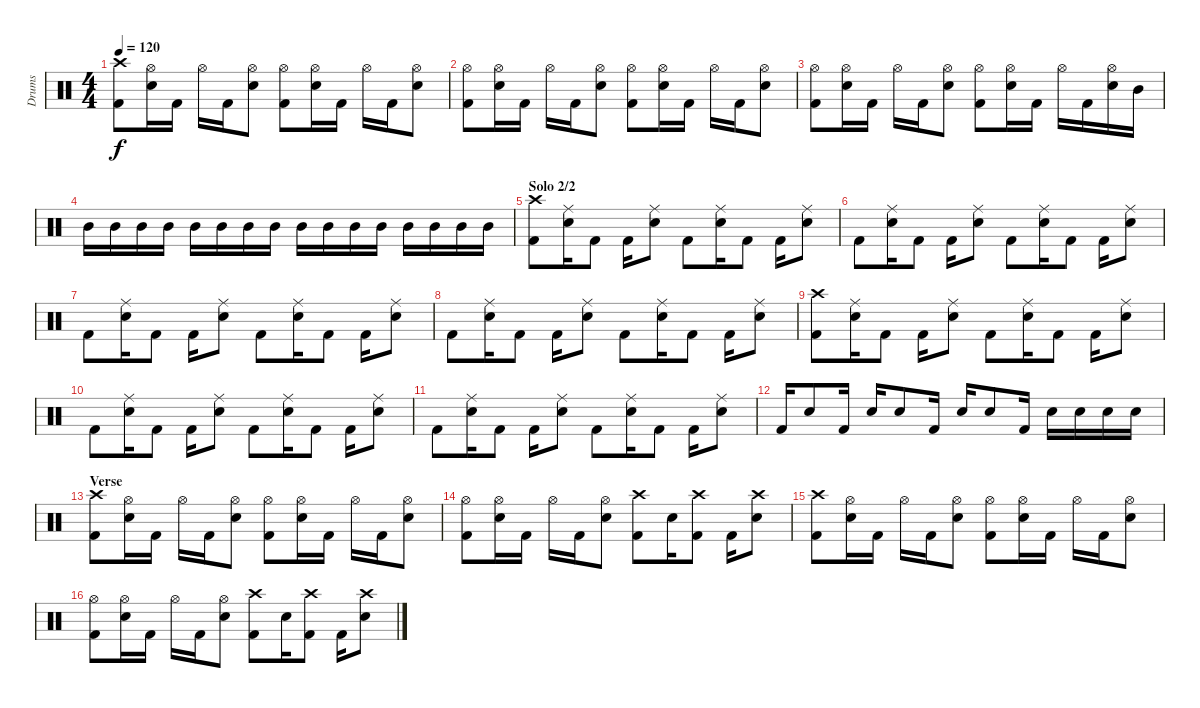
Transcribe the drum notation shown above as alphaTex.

\track ("Drums" "Drums") {instrument percussion}
\staff {score}
\articulation defaults
\ts (4 4)
\tempo 120
\clef neutral
\ks c
("Crash high (hit)" "Kick (hit) 2").8{dy f} ("Hi-Hat (open)" "Snare (hit) 2").16 "Kick (hit) 2".16 "Hi-Hat (open)".16 "Kick (hit) 2".16 ("Hi-Hat (open)" "Snare (hit) 2").8 ("Hi-Hat (open)" "Kick (hit) 2").8 ("Hi-Hat (open)" "Snare (hit) 2").16 "Kick (hit) 2".16 "Hi-Hat (open)".16 "Kick (hit) 2".16 ("Hi-Hat (open)" "Snare (hit) 2").8 |
("Hi-Hat (open)" "Kick (hit) 2").8 ("Hi-Hat (open)" "Snare (hit) 2").16 "Kick (hit) 2".16 "Hi-Hat (open)".16 "Kick (hit) 2".16 ("Hi-Hat (open)" "Snare (hit) 2").8 ("Hi-Hat (open)" "Kick (hit) 2").8 ("Hi-Hat (open)" "Snare (hit) 2").16 "Kick (hit) 2".16 "Hi-Hat (open)".16 "Kick (hit) 2".16 ("Hi-Hat (open)" "Snare (hit) 2").8 |
("Hi-Hat (open)" "Kick (hit) 2").8 ("Hi-Hat (open)" "Snare (hit) 2").16 "Kick (hit) 2".16 "Hi-Hat (open)".16 "Kick (hit) 2".16 ("Hi-Hat (open)" "Snare (hit) 2").8 ("Hi-Hat (open)" "Kick (hit) 2").8 ("Hi-Hat (open)" "Snare (hit) 2").16 "Kick (hit) 2".16 "Hi-Hat (open)".16 "Kick (hit) 2".16 ("Hi-Hat (open)" "Snare (hit) 2").16 "Mid Tom (hit)".16 |
"Mid Tom (hit)".16 "Mid Tom (hit)".16 "Mid Tom (hit)".16 "Mid Tom (hit)".16 "Mid Tom (hit)".16 "Mid Tom (hit)".16 "Mid Tom (hit)".16 "Mid Tom (hit)".16 "Mid Tom (hit)".16 "Mid Tom (hit)".16 "Mid Tom (hit)".16 "Mid Tom (hit)".16 "Mid Tom (hit)".16 "Mid Tom (hit)".16 "Mid Tom (hit)".16 "Mid Tom (hit)".16 |
\section ("" "Solo 2/2")
("Crash high (hit)" "Kick (hit) 2").8 ("Ride (middle)" "Snare (hit) 2").16 "Kick (hit) 2".8 "Kick (hit) 2".16 ("Ride (middle)" "Snare (hit) 2").8 "Kick (hit) 2".8 ("Ride (middle)" "Snare (hit) 2").16 "Kick (hit) 2".8 "Kick (hit) 2".16 ("Ride (middle)" "Snare (hit) 2").8 |
"Kick (hit) 2".8 ("Ride (middle)" "Snare (hit) 2").16 "Kick (hit) 2".8 "Kick (hit) 2".16 ("Ride (middle)" "Snare (hit) 2").8 "Kick (hit) 2".8 ("Ride (middle)" "Snare (hit) 2").16 "Kick (hit) 2".8 "Kick (hit) 2".16 ("Ride (middle)" "Snare (hit) 2").8 |
"Kick (hit) 2".8 ("Ride (middle)" "Snare (hit) 2").16 "Kick (hit) 2".8 "Kick (hit) 2".16 ("Ride (middle)" "Snare (hit) 2").8 "Kick (hit) 2".8 ("Ride (middle)" "Snare (hit) 2").16 "Kick (hit) 2".8 "Kick (hit) 2".16 ("Ride (middle)" "Snare (hit) 2").8 |
"Kick (hit) 2".8 ("Ride (middle)" "Snare (hit) 2").16 "Kick (hit) 2".8 "Kick (hit) 2".16 ("Ride (middle)" "Snare (hit) 2").8 "Kick (hit) 2".8 ("Ride (middle)" "Snare (hit) 2").16 "Kick (hit) 2".8 "Kick (hit) 2".16 ("Ride (middle)" "Snare (hit) 2").8 |
("Crash high (hit)" "Kick (hit) 2").8 ("Ride (middle)" "Snare (hit) 2").16 "Kick (hit) 2".8 "Kick (hit) 2".16 ("Ride (middle)" "Snare (hit) 2").8 "Kick (hit) 2".8 ("Ride (middle)" "Snare (hit) 2").16 "Kick (hit) 2".8 "Kick (hit) 2".16 ("Ride (middle)" "Snare (hit) 2").8 |
"Kick (hit) 2".8 ("Ride (middle)" "Snare (hit) 2").16 "Kick (hit) 2".8 "Kick (hit) 2".16 ("Ride (middle)" "Snare (hit) 2").8 "Kick (hit) 2".8 ("Ride (middle)" "Snare (hit) 2").16 "Kick (hit) 2".8 "Kick (hit) 2".16 ("Ride (middle)" "Snare (hit) 2").8 |
"Kick (hit) 2".8 ("Ride (middle)" "Snare (hit) 2").16 "Kick (hit) 2".8 "Kick (hit) 2".16 ("Ride (middle)" "Snare (hit) 2").8 "Kick (hit) 2".8 ("Ride (middle)" "Snare (hit) 2").16 "Kick (hit) 2".8 "Kick (hit) 2".16 ("Ride (middle)" "Snare (hit) 2").8 |
"Kick (hit) 2".16 "Snare (hit) 2".8 "Kick (hit) 2".16 "Snare (hit) 2".16 "Snare (hit) 2".8 "Kick (hit) 2".16 "Snare (hit) 2".16 "Snare (hit) 2".8 "Kick (hit) 2".16 "Snare (hit) 2".16 "Snare (hit) 2".16 "Snare (hit) 2".16 "Snare (hit) 2".16 |
\section ("" "Verse")
("Crash high (hit)" "Kick (hit) 2").8 ("Hi-Hat (open)" "Snare (hit) 2").16 "Kick (hit) 2".16 "Hi-Hat (open)".16 "Kick (hit) 2".16 ("Hi-Hat (open)" "Snare (hit) 2").8 ("Hi-Hat (open)" "Kick (hit) 2").8 ("Hi-Hat (open)" "Snare (hit) 2").16 "Kick (hit) 2".16 "Hi-Hat (open)".16 "Kick (hit) 2".16 ("Hi-Hat (open)" "Snare (hit) 2").8 |
("Hi-Hat (open)" "Kick (hit) 2").8 ("Hi-Hat (open)" "Snare (hit) 2").16 "Kick (hit) 2".16 "Hi-Hat (open)".16 "Kick (hit) 2".16 ("Hi-Hat (open)" "Snare (hit) 2").8 ("Crash high (hit)" "Kick (hit) 2").8 "Snare (hit) 2".16 ("Crash high (hit)" "Kick (hit) 2").8 "Kick (hit) 2".16 ("Crash high (hit)" "Snare (hit) 2").8 |
("Crash high (hit)" "Kick (hit) 2").8 ("Hi-Hat (open)" "Snare (hit) 2").16 "Kick (hit) 2".16 "Hi-Hat (open)".16 "Kick (hit) 2".16 ("Hi-Hat (open)" "Snare (hit) 2").8 ("Hi-Hat (open)" "Kick (hit) 2").8 ("Hi-Hat (open)" "Snare (hit) 2").16 "Kick (hit) 2".16 "Hi-Hat (open)".16 "Kick (hit) 2".16 ("Hi-Hat (open)" "Snare (hit) 2").8 |
("Hi-Hat (open)" "Kick (hit) 2").8 ("Hi-Hat (open)" "Snare (hit) 2").16 "Kick (hit) 2".16 "Hi-Hat (open)".16 "Kick (hit) 2".16 ("Hi-Hat (open)" "Snare (hit) 2").8 ("Crash high (hit)" "Kick (hit) 2").8 "Snare (hit) 2".16 ("Crash high (hit)" "Kick (hit) 2").8 "Kick (hit) 2".16 ("Crash high (hit)" "Snare (hit) 2").8
